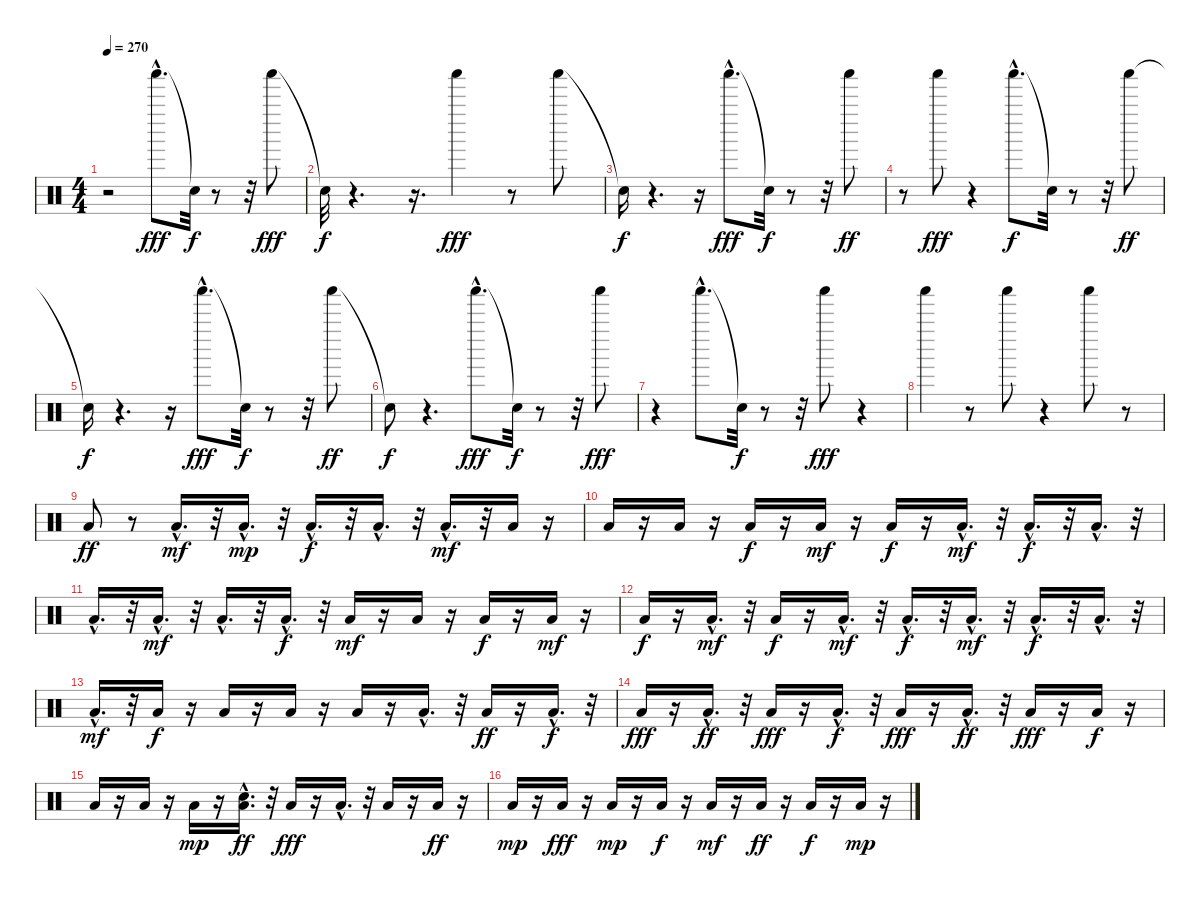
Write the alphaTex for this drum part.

\track "" {instrument percussion}
\staff {score}
\articulation defaults
\ts (4 4)
\tempo 270
\clef neutral
\ks c
r.2{dy fff} "Shaker (hit)"{hac}.8{d} "Snare (hit)"{t}.32{dy f} r.8 r.32 "Shaker (hit)".8{dy fff} |
"Snare (hit)"{t}.32{dy f} r.4{d} r.16{d} "Shaker (hit)".4{dy fff} r.8 "Shaker (hit)".8 |
"Snare (hit)"{t}.16{dy f} r.4{d} r.16 "Shaker (hit)"{hac}.8{d dy fff} "Snare (hit)"{t}.32{dy f} r.8 r.32 "Shaker (hit)".8{dy ff} |
r.8 "Shaker (hit)".8{dy fff} r.4 "Shaker (hit)"{hac}.8{d dy f} "Snare (hit)"{t}.32 r.8 r.32 "Shaker (hit)".8{dy ff} |
"Snare (hit)"{t}.16{dy f} r.4{d} r.16 "Shaker (hit)"{hac}.8{d dy fff} "Snare (hit)"{t}.32{dy f} r.8 r.32 "Shaker (hit)".8{dy ff} |
"Snare (hit)"{t}.8{dy f} r.4{d} "Shaker (hit)"{hac}.8{d dy fff} "Snare (hit)"{t}.32{dy f} r.8 r.32 "Shaker (hit)".8{dy fff} |
r.4 "Shaker (hit)"{hac}.8{d} "Snare (hit)"{t}.32{dy f} r.8 r.32 "Shaker (hit)".8{dy fff} r.4 |
"Shaker (hit)".4 r.8 "Shaker (hit)".8 r.4 "Shaker (hit)".8 r.8 |
"Low Floor Tom (hit)".8{dy ff} r.8 "Low Floor Tom (hit)"{hac}.16{d dy mf} r.32 "Low Floor Tom (hit)"{hac}.16{d dy mp} r.32 "Low Floor Tom (hit)"{hac}.16{d dy f} r.32 "Low Floor Tom (hit)"{hac}.16{d} r.32 "Low Floor Tom (hit)"{hac}.16{d dy mf} r.32 "Low Floor Tom (hit)".16 r.16 |
"Low Floor Tom (hit)".16 r.16 "Low Floor Tom (hit)".16 r.16 "Low Floor Tom (hit)".16{dy f} r.16 "Low Floor Tom (hit)".16{dy mf} r.16 "Low Floor Tom (hit)".16{dy f} r.16 "Low Floor Tom (hit)"{hac}.16{d dy mf} r.32 "Low Floor Tom (hit)"{hac}.16{d dy f} r.32 "Low Floor Tom (hit)"{hac}.16{d} r.32 |
"Low Floor Tom (hit)"{hac}.16{d} r.32 "Low Floor Tom (hit)"{hac}.16{d dy mf} r.32 "Low Floor Tom (hit)"{hac}.16{d} r.32 "Low Floor Tom (hit)"{hac}.16{d dy f} r.32 "Low Floor Tom (hit)".16{dy mf} r.16 "Low Floor Tom (hit)".16 r.16 "Low Floor Tom (hit)".16{dy f} r.16 "Low Floor Tom (hit)".16{dy mf} r.16 |
"Low Floor Tom (hit)".16{dy f} r.16 "Low Floor Tom (hit)"{hac}.16{d dy mf} r.32 "Low Floor Tom (hit)".16{dy f} r.16 "Low Floor Tom (hit)"{hac}.16{d dy mf} r.32 "Low Floor Tom (hit)"{hac}.16{d dy f} r.32 "Low Floor Tom (hit)"{hac}.16{d dy mf} r.32 "Low Floor Tom (hit)"{hac}.16{d dy f} r.32 "Low Floor Tom (hit)"{hac}.16{d} r.32 |
"Low Floor Tom (hit)"{hac}.16{d dy mf} r.32 "Low Floor Tom (hit)".16{dy f} r.16 "Low Floor Tom (hit)".16 r.16 "Low Floor Tom (hit)".16 r.16 "Low Floor Tom (hit)".16 r.16 "Low Floor Tom (hit)"{hac}.16{d} r.32 "Low Floor Tom (hit)".16{dy ff} r.16 "Low Floor Tom (hit)"{hac}.16{d dy f} r.32 |
"Low Floor Tom (hit)".16{dy fff} r.16 "Low Floor Tom (hit)"{hac}.16{d dy ff} r.32 "Low Floor Tom (hit)".16{dy fff} r.16 "Low Floor Tom (hit)"{hac}.16{d dy f} r.32 "Low Floor Tom (hit)".16{dy fff} r.16 "Low Floor Tom (hit)"{hac}.16{d dy ff} r.32 "Low Floor Tom (hit)".16{dy fff} r.16 "Low Floor Tom (hit)".16{dy f} r.16 |
"Low Floor Tom (hit)".16 r.16 "Low Floor Tom (hit)".16 r.16 "Low Floor Tom (hit)".16{dy mp} r.16 ("Low Floor Tom (hit)"{hac} "Electric Snare (hit)").16{d dy ff} r.32 "Low Floor Tom (hit)".16{dy fff} r.16 "Low Floor Tom (hit)"{hac}.16{d} r.32 "Low Floor Tom (hit)".16 r.16 "Low Floor Tom (hit)".16{dy ff} r.16 |
"Low Floor Tom (hit)".16{dy mp} r.16 "Low Floor Tom (hit)".16{dy fff} r.16 "Low Floor Tom (hit)".16{dy mp} r.16 "Low Floor Tom (hit)".16{dy f} r.16 "Low Floor Tom (hit)".16{dy mf} r.16 "Low Floor Tom (hit)".16{dy ff} r.16 "Low Floor Tom (hit)".16{dy f} r.16 "Low Floor Tom (hit)".16{dy mp} r.16
